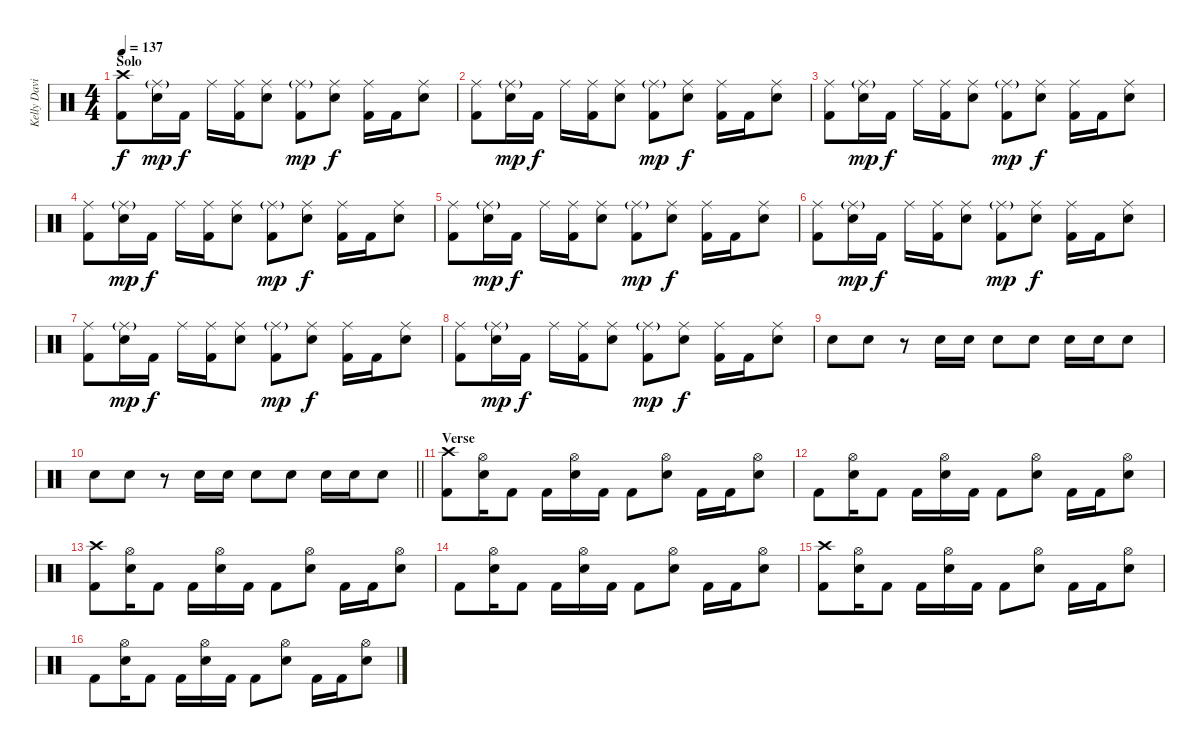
\track ("Kelly David Smith" "Kelly Davi") {instrument percussion}
\staff {score}
\articulation defaults
\ts (4 4)
\section ("" "Solo")
\tempo 137
\clef neutral
\ks c
("Crash high (hit)" "Kick (hit) 2").8{dy f} ("Ride (middle)"{g} "Snare (hit) 2").16{dy mp} "Kick (hit) 2".16{dy f} "Ride (middle)".16 ("Ride (middle)" "Kick (hit) 2").16 ("Ride (middle)" "Snare (hit) 2").8 ("Ride (middle)"{g} "Kick (hit) 2").8{dy mp} ("Ride (middle)" "Snare (hit) 2").8{dy f} ("Ride (middle)" "Kick (hit) 2").16 "Kick (hit) 2".16 ("Ride (middle)" "Snare (hit) 2").8 |
("Ride (middle)" "Kick (hit) 2").8 ("Ride (middle)"{g} "Snare (hit) 2").16{dy mp} "Kick (hit) 2".16{dy f} "Ride (middle)".16 ("Ride (middle)" "Kick (hit) 2").16 ("Ride (middle)" "Snare (hit) 2").8 ("Ride (middle)"{g} "Kick (hit) 2").8{dy mp} ("Ride (middle)" "Snare (hit) 2").8{dy f} ("Ride (middle)" "Kick (hit) 2").16 "Kick (hit) 2".16 ("Ride (middle)" "Snare (hit) 2").8 |
("Ride (middle)" "Kick (hit) 2").8 ("Ride (middle)"{g} "Snare (hit) 2").16{dy mp} "Kick (hit) 2".16{dy f} "Ride (middle)".16 ("Ride (middle)" "Kick (hit) 2").16 ("Ride (middle)" "Snare (hit) 2").8 ("Ride (middle)"{g} "Kick (hit) 2").8{dy mp} ("Ride (middle)" "Snare (hit) 2").8{dy f} ("Ride (middle)" "Kick (hit) 2").16 "Kick (hit) 2".16 ("Ride (middle)" "Snare (hit) 2").8 |
("Ride (middle)" "Kick (hit) 2").8 ("Ride (middle)"{g} "Snare (hit) 2").16{dy mp} "Kick (hit) 2".16{dy f} "Ride (middle)".16 ("Ride (middle)" "Kick (hit) 2").16 ("Ride (middle)" "Snare (hit) 2").8 ("Ride (middle)"{g} "Kick (hit) 2").8{dy mp} ("Ride (middle)" "Snare (hit) 2").8{dy f} ("Ride (middle)" "Kick (hit) 2").16 "Kick (hit) 2".16 ("Ride (middle)" "Snare (hit) 2").8 |
("Ride (middle)" "Kick (hit) 2").8 ("Ride (middle)"{g} "Snare (hit) 2").16{dy mp} "Kick (hit) 2".16{dy f} "Ride (middle)".16 ("Ride (middle)" "Kick (hit) 2").16 ("Ride (middle)" "Snare (hit) 2").8 ("Ride (middle)"{g} "Kick (hit) 2").8{dy mp} ("Ride (middle)" "Snare (hit) 2").8{dy f} ("Ride (middle)" "Kick (hit) 2").16 "Kick (hit) 2".16 ("Ride (middle)" "Snare (hit) 2").8 |
("Ride (middle)" "Kick (hit) 2").8 ("Ride (middle)"{g} "Snare (hit) 2").16{dy mp} "Kick (hit) 2".16{dy f} "Ride (middle)".16 ("Ride (middle)" "Kick (hit) 2").16 ("Ride (middle)" "Snare (hit) 2").8 ("Ride (middle)"{g} "Kick (hit) 2").8{dy mp} ("Ride (middle)" "Snare (hit) 2").8{dy f} ("Ride (middle)" "Kick (hit) 2").16 "Kick (hit) 2".16 ("Ride (middle)" "Snare (hit) 2").8 |
("Ride (middle)" "Kick (hit) 2").8 ("Ride (middle)"{g} "Snare (hit) 2").16{dy mp} "Kick (hit) 2".16{dy f} "Ride (middle)".16 ("Ride (middle)" "Kick (hit) 2").16 ("Ride (middle)" "Snare (hit) 2").8 ("Ride (middle)"{g} "Kick (hit) 2").8{dy mp} ("Ride (middle)" "Snare (hit) 2").8{dy f} ("Ride (middle)" "Kick (hit) 2").16 "Kick (hit) 2".16 ("Ride (middle)" "Snare (hit) 2").8 |
("Ride (middle)" "Kick (hit) 2").8 ("Ride (middle)"{g} "Snare (hit) 2").16{dy mp} "Kick (hit) 2".16{dy f} "Ride (middle)".16 ("Ride (middle)" "Kick (hit) 2").16 ("Ride (middle)" "Snare (hit) 2").8 ("Ride (middle)"{g} "Kick (hit) 2").8{dy mp} ("Ride (middle)" "Snare (hit) 2").8{dy f} ("Ride (middle)" "Kick (hit) 2").16 "Kick (hit) 2".16 ("Ride (middle)" "Snare (hit) 2").8 |
"Snare (hit) 2".8 "Snare (hit) 2".8 r.8 "Snare (hit) 2".16 "Snare (hit) 2".16 "Snare (hit) 2".8 "Snare (hit) 2".8 "Snare (hit) 2".16 "Snare (hit) 2".16 "Snare (hit) 2".8 |
\barLineRight lightlight "Snare (hit) 2".8 "Snare (hit) 2".8
r.8 "Snare (hit) 2".16 "Snare (hit) 2".16 "Snare (hit) 2".8 "Snare (hit) 2".8 "Snare (hit) 2".16 "Snare (hit) 2".16 "Snare (hit) 2".8 |
\section ("" "Verse")
("Crash high (hit)" "Kick (hit) 2").8 ("Hi-Hat (open)" "Snare (hit) 2").16 "Kick (hit) 2".8 "Kick (hit) 2".16 ("Hi-Hat (open)" "Snare (hit) 2").16 "Kick (hit) 2".16 "Kick (hit) 2".8 ("Hi-Hat (open)" "Snare (hit) 2").8 "Kick (hit) 2".16 "Kick (hit) 2".16 ("Hi-Hat (open)" "Snare (hit) 2").8 |
"Kick (hit) 2".8 ("Hi-Hat (open)" "Snare (hit) 2").16 "Kick (hit) 2".8 "Kick (hit) 2".16 ("Hi-Hat (open)" "Snare (hit) 2").16 "Kick (hit) 2".16 "Kick (hit) 2".8 ("Hi-Hat (open)" "Snare (hit) 2").8 "Kick (hit) 2".16 "Kick (hit) 2".16 ("Hi-Hat (open)" "Snare (hit) 2").8 |
("Crash high (hit)" "Kick (hit) 2").8 ("Hi-Hat (open)" "Snare (hit) 2").16 "Kick (hit) 2".8 "Kick (hit) 2".16 ("Hi-Hat (open)" "Snare (hit) 2").16 "Kick (hit) 2".16 "Kick (hit) 2".8 ("Hi-Hat (open)" "Snare (hit) 2").8 "Kick (hit) 2".16 "Kick (hit) 2".16 ("Hi-Hat (open)" "Snare (hit) 2").8 |
"Kick (hit) 2".8 ("Hi-Hat (open)" "Snare (hit) 2").16 "Kick (hit) 2".8 "Kick (hit) 2".16 ("Hi-Hat (open)" "Snare (hit) 2").16 "Kick (hit) 2".16 "Kick (hit) 2".8 ("Hi-Hat (open)" "Snare (hit) 2").8 "Kick (hit) 2".16 "Kick (hit) 2".16 ("Hi-Hat (open)" "Snare (hit) 2").8 |
("Crash high (hit)" "Kick (hit) 2").8 ("Hi-Hat (open)" "Snare (hit) 2").16 "Kick (hit) 2".8 "Kick (hit) 2".16 ("Hi-Hat (open)" "Snare (hit) 2").16 "Kick (hit) 2".16 "Kick (hit) 2".8 ("Hi-Hat (open)" "Snare (hit) 2").8 "Kick (hit) 2".16 "Kick (hit) 2".16 ("Hi-Hat (open)" "Snare (hit) 2").8 |
"Kick (hit) 2".8 ("Hi-Hat (open)" "Snare (hit) 2").16 "Kick (hit) 2".8 "Kick (hit) 2".16 ("Hi-Hat (open)" "Snare (hit) 2").16 "Kick (hit) 2".16 "Kick (hit) 2".8 ("Hi-Hat (open)" "Snare (hit) 2").8 "Kick (hit) 2".16 "Kick (hit) 2".16 ("Hi-Hat (open)" "Snare (hit) 2").8
